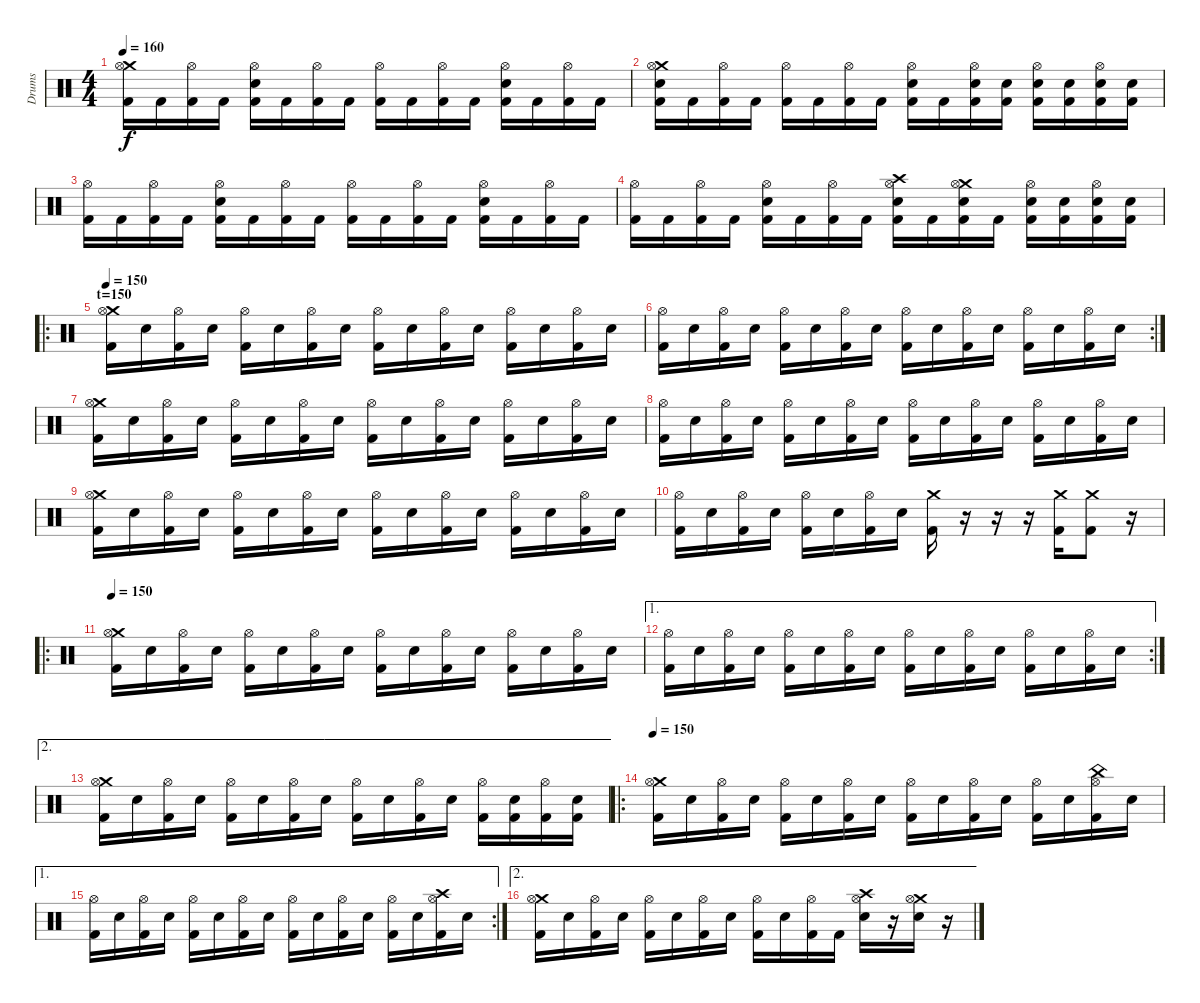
\track ("Drums" "Drums") {instrument percussion}
\staff {score}
\articulation defaults
\ts (4 4)
\tempo 160
\clef neutral
\ks c
("Crash medium (hit)" "Hi-Hat (open)" "Kick (hit) 2").16{dy f} "Kick (hit) 2".16 ("Hi-Hat (open)" "Kick (hit) 2").16 "Kick (hit) 2".16 ("Hi-Hat (open)" "Electric Snare (hit)" "Kick (hit) 2").16 "Kick (hit) 2".16 ("Hi-Hat (open)" "Kick (hit) 2").16 "Kick (hit) 2".16 ("Hi-Hat (open)" "Kick (hit) 2").16 "Kick (hit) 2".16 ("Hi-Hat (open)" "Kick (hit) 2").16 "Kick (hit) 2".16 ("Hi-Hat (open)" "Electric Snare (hit)" "Kick (hit) 2").16 "Kick (hit) 2".16 ("Hi-Hat (open)" "Kick (hit) 2").16 "Kick (hit) 2".16 |
("Crash medium (hit)" "Hi-Hat (open)" "Electric Snare (hit)" "Kick (hit) 2").16 "Kick (hit) 2".16 ("Hi-Hat (open)" "Kick (hit) 2").16 "Kick (hit) 2".16 ("Hi-Hat (open)" "Kick (hit) 2").16 "Kick (hit) 2".16 ("Hi-Hat (open)" "Kick (hit) 2").16 "Kick (hit) 2".16 ("Hi-Hat (open)" "Electric Snare (hit)" "Kick (hit) 2").16 "Kick (hit) 2".16 ("Hi-Hat (open)" "Electric Snare (hit)" "Kick (hit) 2").16 ("Electric Snare (hit)" "Kick (hit) 2").16 ("Hi-Hat (open)" "Electric Snare (hit)" "Kick (hit) 2").16 ("Electric Snare (hit)" "Kick (hit) 2").16 ("Hi-Hat (open)" "Electric Snare (hit)" "Kick (hit) 2").16 ("Electric Snare (hit)" "Kick (hit) 2").16 |
("Hi-Hat (open)" "Kick (hit) 2").16 "Kick (hit) 2".16 ("Hi-Hat (open)" "Kick (hit) 2").16 "Kick (hit) 2".16 ("Hi-Hat (open)" "Electric Snare (hit)" "Kick (hit) 2").16 "Kick (hit) 2".16 ("Hi-Hat (open)" "Kick (hit) 2").16 "Kick (hit) 2".16 ("Hi-Hat (open)" "Kick (hit) 2").16 "Kick (hit) 2".16 ("Hi-Hat (open)" "Kick (hit) 2").16 "Kick (hit) 2".16 ("Hi-Hat (open)" "Electric Snare (hit)" "Kick (hit) 2").16 "Kick (hit) 2".16 ("Hi-Hat (open)" "Kick (hit) 2").16 "Kick (hit) 2".16 |
("Hi-Hat (open)" "Kick (hit) 2").16 "Kick (hit) 2".16 ("Hi-Hat (open)" "Kick (hit) 2").16 "Kick (hit) 2".16 ("Hi-Hat (open)" "Electric Snare (hit)" "Kick (hit) 2").16 "Kick (hit) 2".16 ("Hi-Hat (open)" "Kick (hit) 2").16 "Kick (hit) 2".16 ("Crash high (hit)" "Hi-Hat (open)" "Electric Snare (hit)" "Kick (hit) 2").16 "Kick (hit) 2".16 ("Crash medium (hit)" "Hi-Hat (open)" "Electric Snare (hit)" "Kick (hit) 2").16 "Kick (hit) 2".16 ("Hi-Hat (open)" "Electric Snare (hit)" "Kick (hit) 2").16 ("Electric Snare (hit)" "Kick (hit) 2").16 ("Hi-Hat (open)" "Electric Snare (hit)" "Kick (hit) 2").16 ("Electric Snare (hit)" "Kick (hit) 2").16 |
\ro
\section ("" "t=150")
\tempo 150
("Crash medium (hit)" "Hi-Hat (open)" "Kick (hit) 2").16 "Electric Snare (hit)".16 ("Hi-Hat (open)" "Kick (hit) 2").16 "Electric Snare (hit)".16 ("Hi-Hat (open)" "Kick (hit) 2").16 "Electric Snare (hit)".16 ("Hi-Hat (open)" "Kick (hit) 2").16 "Electric Snare (hit)".16 ("Hi-Hat (open)" "Kick (hit) 2").16 "Electric Snare (hit)".16 ("Hi-Hat (open)" "Kick (hit) 2").16 "Electric Snare (hit)".16 ("Hi-Hat (open)" "Kick (hit) 2").16 "Electric Snare (hit)".16 ("Hi-Hat (open)" "Kick (hit) 2").16 "Electric Snare (hit)".16 |
\rc 2
("Hi-Hat (open)" "Kick (hit) 2").16 "Electric Snare (hit)".16 ("Hi-Hat (open)" "Kick (hit) 2").16 "Electric Snare (hit)".16 ("Hi-Hat (open)" "Kick (hit) 2").16 "Electric Snare (hit)".16 ("Hi-Hat (open)" "Kick (hit) 2").16 "Electric Snare (hit)".16 ("Hi-Hat (open)" "Kick (hit) 2").16 "Electric Snare (hit)".16 ("Hi-Hat (open)" "Kick (hit) 2").16 "Electric Snare (hit)".16 ("Hi-Hat (open)" "Kick (hit) 2").16 "Electric Snare (hit)".16 ("Hi-Hat (open)" "Kick (hit) 2").16 "Electric Snare (hit)".16 |
("Crash medium (hit)" "Hi-Hat (open)" "Kick (hit) 2").16 "Electric Snare (hit)".16 ("Hi-Hat (open)" "Kick (hit) 2").16 "Electric Snare (hit)".16 ("Hi-Hat (open)" "Kick (hit) 2").16 "Electric Snare (hit)".16 ("Hi-Hat (open)" "Kick (hit) 2").16 "Electric Snare (hit)".16 ("Hi-Hat (open)" "Kick (hit) 2").16 "Electric Snare (hit)".16 ("Hi-Hat (open)" "Kick (hit) 2").16 "Electric Snare (hit)".16 ("Hi-Hat (open)" "Kick (hit) 2").16 "Electric Snare (hit)".16 ("Hi-Hat (open)" "Kick (hit) 2").16 "Electric Snare (hit)".16 |
("Hi-Hat (open)" "Kick (hit) 2").16 "Electric Snare (hit)".16 ("Hi-Hat (open)" "Kick (hit) 2").16 "Electric Snare (hit)".16 ("Hi-Hat (open)" "Kick (hit) 2").16 "Electric Snare (hit)".16 ("Hi-Hat (open)" "Kick (hit) 2").16 "Electric Snare (hit)".16 ("Hi-Hat (open)" "Kick (hit) 2").16 "Electric Snare (hit)".16 ("Hi-Hat (open)" "Kick (hit) 2").16 "Electric Snare (hit)".16 ("Hi-Hat (open)" "Kick (hit) 2").16 "Electric Snare (hit)".16 ("Hi-Hat (open)" "Kick (hit) 2").16 "Electric Snare (hit)".16 |
("Crash medium (hit)" "Hi-Hat (open)" "Kick (hit) 2").16 "Electric Snare (hit)".16 ("Hi-Hat (open)" "Kick (hit) 2").16 "Electric Snare (hit)".16 ("Hi-Hat (open)" "Kick (hit) 2").16 "Electric Snare (hit)".16 ("Hi-Hat (open)" "Kick (hit) 2").16 "Electric Snare (hit)".16 ("Hi-Hat (open)" "Kick (hit) 2").16 "Electric Snare (hit)".16 ("Hi-Hat (open)" "Kick (hit) 2").16 "Electric Snare (hit)".16 ("Hi-Hat (open)" "Kick (hit) 2").16 "Electric Snare (hit)".16 ("Hi-Hat (open)" "Kick (hit) 2").16 "Electric Snare (hit)".16 |
("Hi-Hat (open)" "Kick (hit) 2").16 "Electric Snare (hit)".16 ("Hi-Hat (open)" "Kick (hit) 2").16 "Electric Snare (hit)".16 ("Hi-Hat (open)" "Kick (hit) 2").16 "Electric Snare (hit)".16 ("Hi-Hat (open)" "Kick (hit) 2").16 "Electric Snare (hit)".16 ("Crash medium (hit)" "Kick (hit) 2").16 r.16 r.16 r.16 ("Crash medium (hit)" "Kick (hit) 2").16 ("Crash medium (hit)" "Kick (hit) 2").8 r.16 |
\ro
\tempo 150
("Crash medium (hit)" "Hi-Hat (open)" "Kick (hit) 2").16 "Electric Snare (hit)".16 ("Hi-Hat (open)" "Kick (hit) 2").16 "Electric Snare (hit)".16 ("Hi-Hat (open)" "Kick (hit) 2").16 "Electric Snare (hit)".16 ("Hi-Hat (open)" "Kick (hit) 2").16 "Electric Snare (hit)".16 ("Hi-Hat (open)" "Kick (hit) 2").16 "Electric Snare (hit)".16 ("Hi-Hat (open)" "Kick (hit) 2").16 "Electric Snare (hit)".16 ("Hi-Hat (open)" "Kick (hit) 2").16 "Electric Snare (hit)".16 ("Hi-Hat (open)" "Kick (hit) 2").16 "Electric Snare (hit)".16 |
\ae 1
\rc 2
("Hi-Hat (open)" "Kick (hit) 2").16 "Electric Snare (hit)".16 ("Hi-Hat (open)" "Kick (hit) 2").16 "Electric Snare (hit)".16 ("Hi-Hat (open)" "Kick (hit) 2").16 "Electric Snare (hit)".16 ("Hi-Hat (open)" "Kick (hit) 2").16 "Electric Snare (hit)".16 ("Hi-Hat (open)" "Kick (hit) 2").16 "Electric Snare (hit)".16 ("Hi-Hat (open)" "Kick (hit) 2").16 "Electric Snare (hit)".16 ("Hi-Hat (open)" "Kick (hit) 2").16 "Electric Snare (hit)".16 ("Hi-Hat (open)" "Kick (hit) 2").16 "Electric Snare (hit)".16 |
\ae 2
("Crash medium (hit)" "Hi-Hat (open)" "Kick (hit) 2").16 "Electric Snare (hit)".16 ("Hi-Hat (open)" "Kick (hit) 2").16 "Electric Snare (hit)".16 ("Hi-Hat (open)" "Kick (hit) 2").16 "Electric Snare (hit)".16 ("Hi-Hat (open)" "Kick (hit) 2").16 "Electric Snare (hit)".16 ("Hi-Hat (open)" "Kick (hit) 2").16 "Electric Snare (hit)".16 ("Hi-Hat (open)" "Kick (hit) 2").16 "Electric Snare (hit)".16 ("Hi-Hat (open)" "Kick (hit) 2").16 ("Kick (hit) 2" "Electric Snare (hit)").16 ("Hi-Hat (open)" "Kick (hit) 2").16 ("Kick (hit) 2" "Electric Snare (hit)").16 |
\ro
\tempo 150
("Crash medium (hit)" "Hi-Hat (open)" "Kick (hit) 2").16 "Electric Snare (hit)".16 ("Hi-Hat (open)" "Kick (hit) 2").16 "Electric Snare (hit)".16 ("Hi-Hat (open)" "Kick (hit) 2").16 "Electric Snare (hit)".16 ("Hi-Hat (open)" "Kick (hit) 2").16 "Electric Snare (hit)".16 ("Hi-Hat (open)" "Kick (hit) 2").16 "Electric Snare (hit)".16 ("Hi-Hat (open)" "Kick (hit) 2").16 "Electric Snare (hit)".16 ("Hi-Hat (open)" "Kick (hit) 2").16 "Electric Snare (hit)".16 ("China (hit)" "Hi-Hat (open)" "Kick (hit) 2").16 "Electric Snare (hit)".16 |
\ae 1
\rc 2
("Hi-Hat (open)" "Kick (hit) 2").16 "Electric Snare (hit)".16 ("Hi-Hat (open)" "Kick (hit) 2").16 "Electric Snare (hit)".16 ("Hi-Hat (open)" "Kick (hit) 2").16 "Electric Snare (hit)".16 ("Hi-Hat (open)" "Kick (hit) 2").16 "Electric Snare (hit)".16 ("Hi-Hat (open)" "Kick (hit) 2").16 "Electric Snare (hit)".16 ("Hi-Hat (open)" "Kick (hit) 2").16 "Electric Snare (hit)".16 ("Hi-Hat (open)" "Kick (hit) 2").16 "Electric Snare (hit)".16 ("Crash high (hit)" "Hi-Hat (open)" "Kick (hit) 2").16 "Electric Snare (hit)".16 |
\ae 2
("Crash medium (hit)" "Hi-Hat (open)" "Kick (hit) 2").16 "Electric Snare (hit)".16 ("Hi-Hat (open)" "Kick (hit) 2").16 "Electric Snare (hit)".16 ("Hi-Hat (open)" "Kick (hit) 2").16 "Electric Snare (hit)".16 ("Hi-Hat (open)" "Kick (hit) 2").16 "Electric Snare (hit)".16 ("Hi-Hat (open)" "Kick (hit) 2").16 "Electric Snare (hit)".16 ("Hi-Hat (open)" "Kick (hit) 2").16 "Kick (hit) 2".16 ("Crash high (hit)" "Hi-Hat (open)" "Electric Snare (hit)").16 r.16 ("Crash medium (hit)" "Hi-Hat (open)" "Electric Snare (hit)").16 r.16
